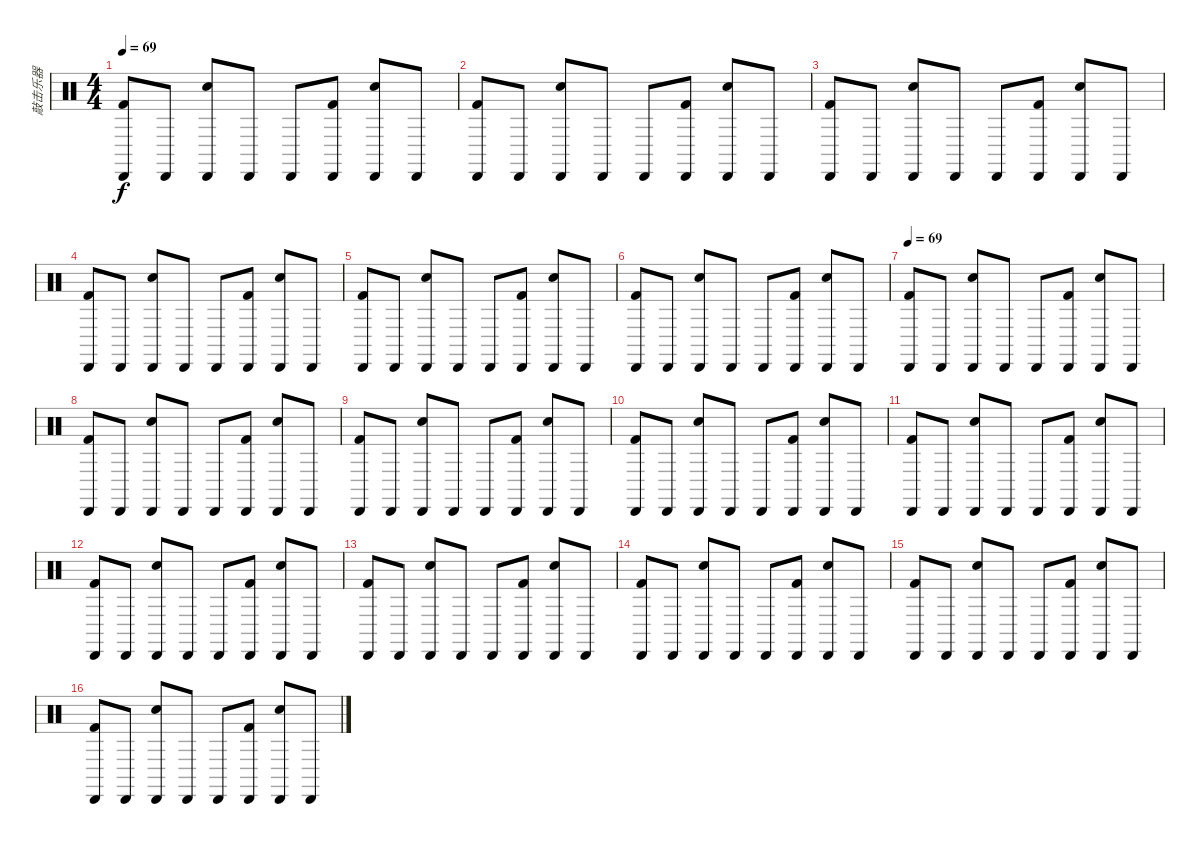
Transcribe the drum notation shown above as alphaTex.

\track ("敲击乐器" "敲击乐器") {instrument percussion}
\staff {score}
\articulation defaults
\ts (4 4)
\tempo 69
\clef neutral
\ks c
("Cabasa (hit)" "Kick (hit) 2").8{dy f} "Cabasa (hit)".8 ("Cabasa (hit)" "Electric Snare (hit)").8 "Cabasa (hit)".8 "Cabasa (hit)".8 ("Cabasa (hit)" "Kick (hit) 2").8 ("Cabasa (hit)" "Electric Snare (hit)").8 "Cabasa (hit)".8 |
("Cabasa (hit)" "Kick (hit) 2").8 "Cabasa (hit)".8 ("Cabasa (hit)" "Electric Snare (hit)").8 "Cabasa (hit)".8 "Cabasa (hit)".8 ("Cabasa (hit)" "Kick (hit) 2").8 ("Cabasa (hit)" "Electric Snare (hit)").8 "Cabasa (hit)".8 |
("Cabasa (hit)" "Kick (hit) 2").8 "Cabasa (hit)".8 ("Cabasa (hit)" "Electric Snare (hit)").8 "Cabasa (hit)".8 "Cabasa (hit)".8 ("Cabasa (hit)" "Kick (hit) 2").8 ("Cabasa (hit)" "Electric Snare (hit)").8 "Cabasa (hit)".8 |
("Cabasa (hit)" "Kick (hit) 2").8 "Cabasa (hit)".8 ("Cabasa (hit)" "Electric Snare (hit)").8 "Cabasa (hit)".8 "Cabasa (hit)".8 ("Cabasa (hit)" "Kick (hit) 2").8 ("Cabasa (hit)" "Electric Snare (hit)").8 "Cabasa (hit)".8 |
("Cabasa (hit)" "Kick (hit) 2").8 "Cabasa (hit)".8 ("Cabasa (hit)" "Electric Snare (hit)").8 "Cabasa (hit)".8 "Cabasa (hit)".8 ("Cabasa (hit)" "Kick (hit) 2").8 ("Cabasa (hit)" "Electric Snare (hit)").8 "Cabasa (hit)".8 |
("Cabasa (hit)" "Kick (hit) 2").8 "Cabasa (hit)".8 ("Cabasa (hit)" "Electric Snare (hit)").8 "Cabasa (hit)".8 "Cabasa (hit)".8 ("Cabasa (hit)" "Kick (hit) 2").8 ("Cabasa (hit)" "Electric Snare (hit)").8 "Cabasa (hit)".8 |
\tempo 69
("Cabasa (hit)" "Kick (hit) 2").8 "Cabasa (hit)".8 ("Cabasa (hit)" "Electric Snare (hit)").8 "Cabasa (hit)".8 "Cabasa (hit)".8 ("Cabasa (hit)" "Kick (hit) 2").8 ("Cabasa (hit)" "Electric Snare (hit)").8 "Cabasa (hit)".8 |
("Cabasa (hit)" "Kick (hit) 2").8 "Cabasa (hit)".8 ("Cabasa (hit)" "Electric Snare (hit)").8 "Cabasa (hit)".8 "Cabasa (hit)".8 ("Cabasa (hit)" "Kick (hit) 2").8 ("Cabasa (hit)" "Electric Snare (hit)").8 "Cabasa (hit)".8 |
("Cabasa (hit)" "Kick (hit) 2").8 "Cabasa (hit)".8 ("Cabasa (hit)" "Electric Snare (hit)").8 "Cabasa (hit)".8 "Cabasa (hit)".8 ("Cabasa (hit)" "Kick (hit) 2").8 ("Cabasa (hit)" "Electric Snare (hit)").8 "Cabasa (hit)".8 |
("Cabasa (hit)" "Kick (hit) 2").8 "Cabasa (hit)".8 ("Cabasa (hit)" "Electric Snare (hit)").8 "Cabasa (hit)".8 "Cabasa (hit)".8 ("Cabasa (hit)" "Kick (hit) 2").8 ("Cabasa (hit)" "Electric Snare (hit)").8 "Cabasa (hit)".8 |
("Cabasa (hit)" "Kick (hit) 2").8 "Cabasa (hit)".8 ("Cabasa (hit)" "Electric Snare (hit)").8 "Cabasa (hit)".8 "Cabasa (hit)".8 ("Cabasa (hit)" "Kick (hit) 2").8 ("Cabasa (hit)" "Electric Snare (hit)").8 "Cabasa (hit)".8 |
("Cabasa (hit)" "Kick (hit) 2").8 "Cabasa (hit)".8 ("Cabasa (hit)" "Electric Snare (hit)").8 "Cabasa (hit)".8 "Cabasa (hit)".8 ("Cabasa (hit)" "Kick (hit) 2").8 ("Cabasa (hit)" "Electric Snare (hit)").8 "Cabasa (hit)".8 |
("Cabasa (hit)" "Kick (hit) 2").8 "Cabasa (hit)".8 ("Cabasa (hit)" "Electric Snare (hit)").8 "Cabasa (hit)".8 "Cabasa (hit)".8 ("Cabasa (hit)" "Kick (hit) 2").8 ("Cabasa (hit)" "Electric Snare (hit)").8 "Cabasa (hit)".8 |
("Cabasa (hit)" "Kick (hit) 2").8 "Cabasa (hit)".8 ("Cabasa (hit)" "Electric Snare (hit)").8 "Cabasa (hit)".8 "Cabasa (hit)".8 ("Cabasa (hit)" "Kick (hit) 2").8 ("Cabasa (hit)" "Electric Snare (hit)").8 "Cabasa (hit)".8 |
("Cabasa (hit)" "Kick (hit) 2").8 "Cabasa (hit)".8 ("Cabasa (hit)" "Electric Snare (hit)").8 "Cabasa (hit)".8 "Cabasa (hit)".8 ("Cabasa (hit)" "Kick (hit) 2").8 ("Cabasa (hit)" "Electric Snare (hit)").8 "Cabasa (hit)".8 |
("Cabasa (hit)" "Kick (hit) 2").8 "Cabasa (hit)".8 ("Cabasa (hit)" "Electric Snare (hit)").8 "Cabasa (hit)".8 "Cabasa (hit)".8 ("Cabasa (hit)" "Kick (hit) 2").8 ("Cabasa (hit)" "Electric Snare (hit)").8 "Cabasa (hit)".8
